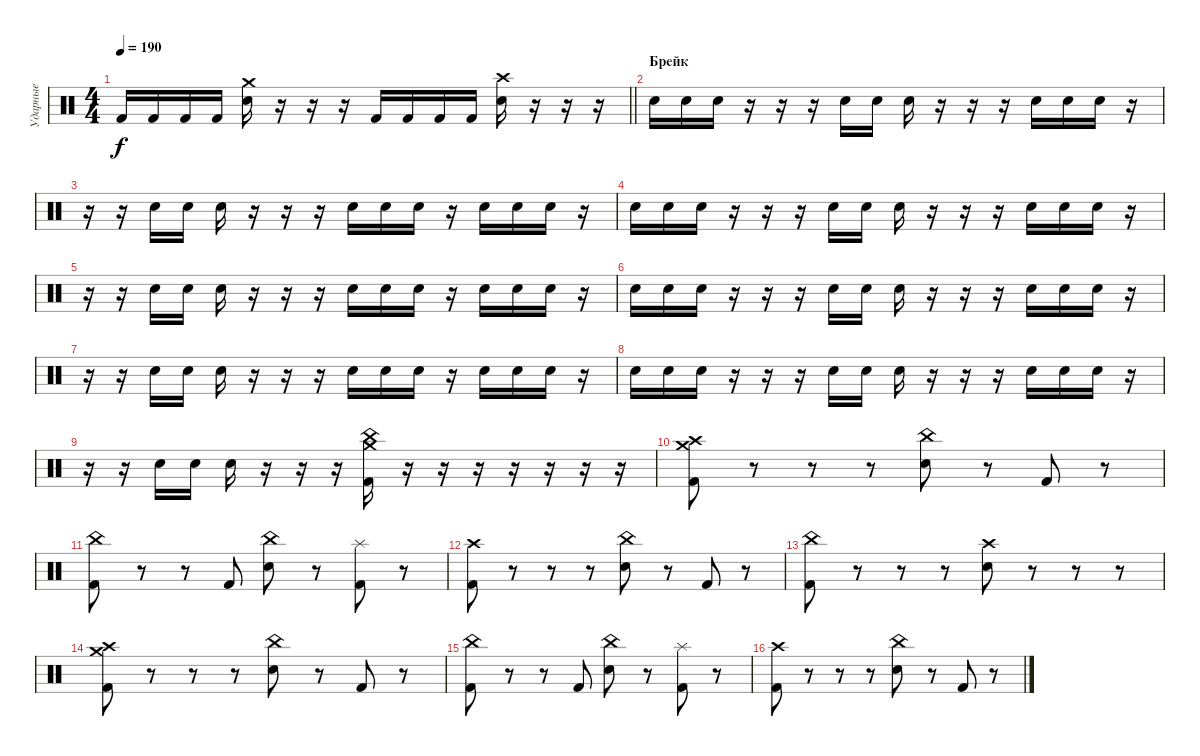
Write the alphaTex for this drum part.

\track ("Ударные" "Ударные") {instrument percussion}
\staff {score}
\articulation defaults
\ts (4 4)
\tempo 190
\clef neutral
\barLineRight lightlight
\ks c "Kick (hit) 2".16{dy f} "Kick (hit) 2".16 "Kick (hit) 2".16 "Kick (hit) 2".16
("Electric Snare (hit)" "Crash medium (hit)").16 r.16 r.16 r.16 "Kick (hit) 2".16 "Kick (hit) 2".16 "Kick (hit) 2".16 "Kick (hit) 2".16 ("Electric Snare (hit)" "Crash high (hit)").16 r.16 r.16 r.16 |
\section ("" "Брейк")
"Electric Snare (hit)".16 "Electric Snare (hit)".16 "Electric Snare (hit)".16 r.16 r.16 r.16 "Electric Snare (hit)".16 "Electric Snare (hit)".16 "Electric Snare (hit)".16 r.16 r.16 r.16 "Electric Snare (hit)".16 "Electric Snare (hit)".16 "Electric Snare (hit)".16 r.16 |
r.16 r.16 "Electric Snare (hit)".16 "Electric Snare (hit)".16 "Electric Snare (hit)".16 r.16 r.16 r.16 "Electric Snare (hit)".16 "Electric Snare (hit)".16 "Electric Snare (hit)".16 r.16 "Electric Snare (hit)".16 "Electric Snare (hit)".16 "Electric Snare (hit)".16 r.16 |
"Electric Snare (hit)".16 "Electric Snare (hit)".16 "Electric Snare (hit)".16 r.16 r.16 r.16 "Electric Snare (hit)".16 "Electric Snare (hit)".16 "Electric Snare (hit)".16 r.16 r.16 r.16 "Electric Snare (hit)".16 "Electric Snare (hit)".16 "Electric Snare (hit)".16 r.16 |
r.16 r.16 "Electric Snare (hit)".16 "Electric Snare (hit)".16 "Electric Snare (hit)".16 r.16 r.16 r.16 "Electric Snare (hit)".16 "Electric Snare (hit)".16 "Electric Snare (hit)".16 r.16 "Electric Snare (hit)".16 "Electric Snare (hit)".16 "Electric Snare (hit)".16 r.16 |
"Electric Snare (hit)".16 "Electric Snare (hit)".16 "Electric Snare (hit)".16 r.16 r.16 r.16 "Electric Snare (hit)".16 "Electric Snare (hit)".16 "Electric Snare (hit)".16 r.16 r.16 r.16 "Electric Snare (hit)".16 "Electric Snare (hit)".16 "Electric Snare (hit)".16 r.16 |
r.16 r.16 "Electric Snare (hit)".16 "Electric Snare (hit)".16 "Electric Snare (hit)".16 r.16 r.16 r.16 "Electric Snare (hit)".16 "Electric Snare (hit)".16 "Electric Snare (hit)".16 r.16 "Electric Snare (hit)".16 "Electric Snare (hit)".16 "Electric Snare (hit)".16 r.16 |
"Electric Snare (hit)".16 "Electric Snare (hit)".16 "Electric Snare (hit)".16 r.16 r.16 r.16 "Electric Snare (hit)".16 "Electric Snare (hit)".16 "Electric Snare (hit)".16 r.16 r.16 r.16 "Electric Snare (hit)".16 "Electric Snare (hit)".16 "Electric Snare (hit)".16 r.16 |
r.16 r.16 "Electric Snare (hit)".16 "Electric Snare (hit)".16 "Electric Snare (hit)".16 r.16 r.16 r.16 ("Kick (hit) 2" "Crash medium (hit)" "China (hit)").16 r.16 r.16 r.16 r.16 r.16 r.16 r.16 |
("Kick (hit) 2" "Crash medium (hit)" "Crash high (hit)").8 r.8 r.8 r.8 ("Electric Snare (hit)" "China (hit)").8 r.8 "Kick (hit) 2".8 r.8 |
("Kick (hit) 2" "China (hit)").8 r.8 r.8 "Kick (hit) 2".8 ("Electric Snare (hit)" "China (hit)").8 r.8 ("Kick (hit) 2" "Splash (hit)").8 r.8 |
("Kick (hit) 2" "Crash high (hit)").8 r.8 r.8 r.8 ("Electric Snare (hit)" "China (hit)").8 r.8 "Kick (hit) 2".8 r.8 |
("Kick (hit) 2" "China (hit)").8 r.8 r.8 r.8 ("Electric Snare (hit)" "Crash high (hit)").8 r.8 r.8 r.8 |
("Kick (hit) 2" "Crash medium (hit)" "Crash high (hit)").8 r.8 r.8 r.8 ("Electric Snare (hit)" "China (hit)").8 r.8 "Kick (hit) 2".8 r.8 |
("Kick (hit) 2" "China (hit)").8 r.8 r.8 "Kick (hit) 2".8 ("Electric Snare (hit)" "China (hit)").8 r.8 ("Kick (hit) 2" "Splash (hit)").8 r.8 |
("Kick (hit) 2" "Crash high (hit)").8 r.8 r.8 r.8 ("Electric Snare (hit)" "China (hit)").8 r.8 "Kick (hit) 2".8 r.8
